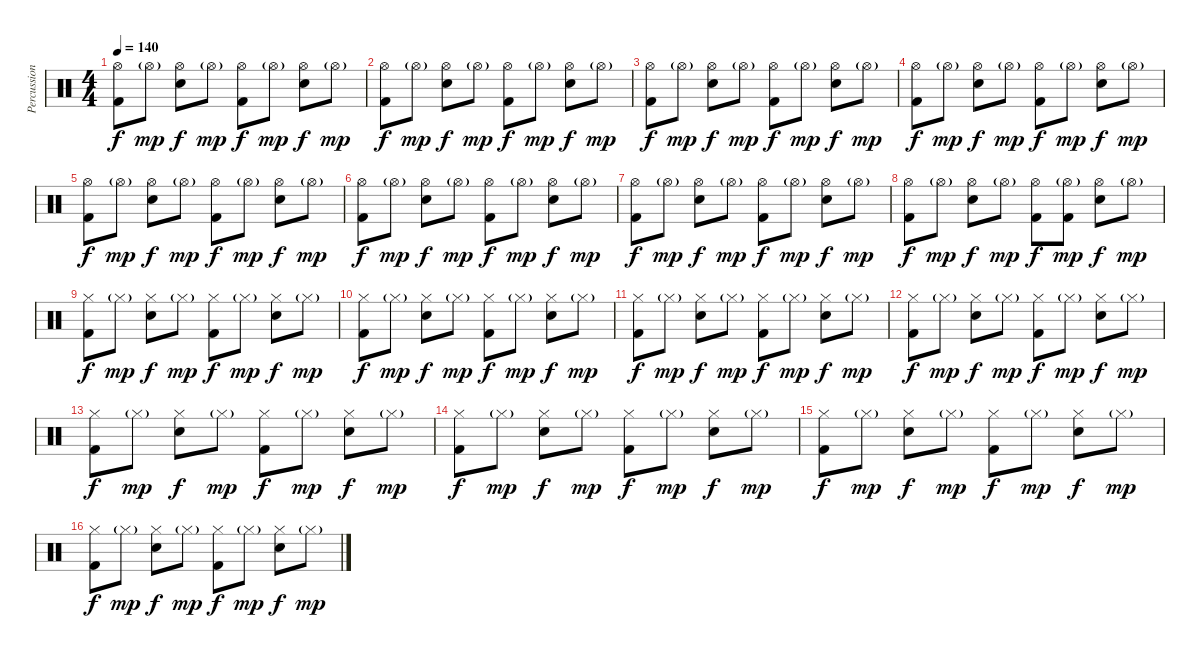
\track ("Percussion" "Percussion") {instrument percussion}
\staff {score}
\articulation defaults
\ts (4 4)
\tempo 140
\clef neutral
\ks c
("Hi-Hat (open)" "Kick (hit) 2").8{dy f} "Hi-Hat (open)"{g}.8{dy mp} ("Hi-Hat (open)" "Snare (hit) 2").8{dy f} "Hi-Hat (open)"{g}.8{dy mp} ("Hi-Hat (open)" "Kick (hit) 2").8{dy f} "Hi-Hat (open)"{g}.8{dy mp} ("Hi-Hat (open)" "Snare (hit) 2").8{dy f} "Hi-Hat (open)"{g}.8{dy mp} |
("Hi-Hat (open)" "Kick (hit) 2").8{dy f} "Hi-Hat (open)"{g}.8{dy mp} ("Hi-Hat (open)" "Snare (hit) 2").8{dy f} "Hi-Hat (open)"{g}.8{dy mp} ("Hi-Hat (open)" "Kick (hit) 2").8{dy f} "Hi-Hat (open)"{g}.8{dy mp} ("Hi-Hat (open)" "Snare (hit) 2").8{dy f} "Hi-Hat (open)"{g}.8{dy mp} |
("Hi-Hat (open)" "Kick (hit) 2").8{dy f} "Hi-Hat (open)"{g}.8{dy mp} ("Hi-Hat (open)" "Snare (hit) 2").8{dy f} "Hi-Hat (open)"{g}.8{dy mp} ("Hi-Hat (open)" "Kick (hit) 2").8{dy f} "Hi-Hat (open)"{g}.8{dy mp} ("Hi-Hat (open)" "Snare (hit) 2").8{dy f} "Hi-Hat (open)"{g}.8{dy mp} |
("Hi-Hat (open)" "Kick (hit) 2").8{dy f} "Hi-Hat (open)"{g}.8{dy mp} ("Hi-Hat (open)" "Snare (hit) 2").8{dy f} "Hi-Hat (open)"{g}.8{dy mp} ("Hi-Hat (open)" "Kick (hit) 2").8{dy f} "Hi-Hat (open)"{g}.8{dy mp} ("Hi-Hat (open)" "Snare (hit) 2").8{dy f} "Hi-Hat (open)"{g}.8{dy mp} |
("Hi-Hat (open)" "Kick (hit) 2").8{dy f} "Hi-Hat (open)"{g}.8{dy mp} ("Hi-Hat (open)" "Snare (hit) 2").8{dy f} "Hi-Hat (open)"{g}.8{dy mp} ("Hi-Hat (open)" "Kick (hit) 2").8{dy f} "Hi-Hat (open)"{g}.8{dy mp} ("Hi-Hat (open)" "Snare (hit) 2").8{dy f} "Hi-Hat (open)"{g}.8{dy mp} |
("Hi-Hat (open)" "Kick (hit) 2").8{dy f} "Hi-Hat (open)"{g}.8{dy mp} ("Hi-Hat (open)" "Snare (hit) 2").8{dy f} "Hi-Hat (open)"{g}.8{dy mp} ("Hi-Hat (open)" "Kick (hit) 2").8{dy f} "Hi-Hat (open)"{g}.8{dy mp} ("Hi-Hat (open)" "Snare (hit) 2").8{dy f} "Hi-Hat (open)"{g}.8{dy mp} |
("Hi-Hat (open)" "Kick (hit) 2").8{dy f} "Hi-Hat (open)"{g}.8{dy mp} ("Hi-Hat (open)" "Snare (hit) 2").8{dy f} "Hi-Hat (open)"{g}.8{dy mp} ("Hi-Hat (open)" "Kick (hit) 2").8{dy f} "Hi-Hat (open)"{g}.8{dy mp} ("Hi-Hat (open)" "Snare (hit) 2").8{dy f} "Hi-Hat (open)"{g}.8{dy mp} |
("Hi-Hat (open)" "Kick (hit) 2").8{dy f} "Hi-Hat (open)"{g}.8{dy mp} ("Hi-Hat (open)" "Snare (hit) 2").8{dy f} "Hi-Hat (open)"{g}.8{dy mp} ("Hi-Hat (open)" "Kick (hit) 2").8{dy f} ("Hi-Hat (open)"{g} "Kick (hit) 2").8{dy mp} ("Hi-Hat (open)" "Snare (hit) 2").8{dy f} "Hi-Hat (open)"{g}.8{dy mp} |
("Hi-Hat (closed)" "Kick (hit) 2").8{dy f} "Hi-Hat (closed)"{g}.8{dy mp} ("Hi-Hat (closed)" "Snare (hit) 2").8{dy f} "Hi-Hat (closed)"{g}.8{dy mp} ("Hi-Hat (closed)" "Kick (hit) 2").8{dy f} "Hi-Hat (closed)"{g}.8{dy mp} ("Hi-Hat (closed)" "Snare (hit) 2").8{dy f} "Hi-Hat (closed)"{g}.8{dy mp} |
("Hi-Hat (closed)" "Kick (hit) 2").8{dy f} "Hi-Hat (closed)"{g}.8{dy mp} ("Hi-Hat (closed)" "Snare (hit) 2").8{dy f} "Hi-Hat (closed)"{g}.8{dy mp} ("Hi-Hat (closed)" "Kick (hit) 2").8{dy f} "Hi-Hat (closed)"{g}.8{dy mp} ("Hi-Hat (closed)" "Snare (hit) 2").8{dy f} "Hi-Hat (closed)"{g}.8{dy mp} |
("Hi-Hat (closed)" "Kick (hit) 2").8{dy f} "Hi-Hat (closed)"{g}.8{dy mp} ("Hi-Hat (closed)" "Snare (hit) 2").8{dy f} "Hi-Hat (closed)"{g}.8{dy mp} ("Hi-Hat (closed)" "Kick (hit) 2").8{dy f} "Hi-Hat (closed)"{g}.8{dy mp} ("Hi-Hat (closed)" "Snare (hit) 2").8{dy f} "Hi-Hat (closed)"{g}.8{dy mp} |
("Hi-Hat (closed)" "Kick (hit) 2").8{dy f} "Hi-Hat (closed)"{g}.8{dy mp} ("Hi-Hat (closed)" "Snare (hit) 2").8{dy f} "Hi-Hat (closed)"{g}.8{dy mp} ("Hi-Hat (closed)" "Kick (hit) 2").8{dy f} "Hi-Hat (closed)"{g}.8{dy mp} ("Hi-Hat (closed)" "Snare (hit) 2").8{dy f} "Hi-Hat (closed)"{g}.8{dy mp} |
("Hi-Hat (closed)" "Kick (hit) 2").8{dy f} "Hi-Hat (closed)"{g}.8{dy mp} ("Hi-Hat (closed)" "Snare (hit) 2").8{dy f} "Hi-Hat (closed)"{g}.8{dy mp} ("Hi-Hat (closed)" "Kick (hit) 2").8{dy f} "Hi-Hat (closed)"{g}.8{dy mp} ("Hi-Hat (closed)" "Snare (hit) 2").8{dy f} "Hi-Hat (closed)"{g}.8{dy mp} |
("Hi-Hat (closed)" "Kick (hit) 2").8{dy f} "Hi-Hat (closed)"{g}.8{dy mp} ("Hi-Hat (closed)" "Snare (hit) 2").8{dy f} "Hi-Hat (closed)"{g}.8{dy mp} ("Hi-Hat (closed)" "Kick (hit) 2").8{dy f} "Hi-Hat (closed)"{g}.8{dy mp} ("Hi-Hat (closed)" "Snare (hit) 2").8{dy f} "Hi-Hat (closed)"{g}.8{dy mp} |
("Hi-Hat (closed)" "Kick (hit) 2").8{dy f} "Hi-Hat (closed)"{g}.8{dy mp} ("Hi-Hat (closed)" "Snare (hit) 2").8{dy f} "Hi-Hat (closed)"{g}.8{dy mp} ("Hi-Hat (closed)" "Kick (hit) 2").8{dy f} "Hi-Hat (closed)"{g}.8{dy mp} ("Hi-Hat (closed)" "Snare (hit) 2").8{dy f} "Hi-Hat (closed)"{g}.8{dy mp} |
("Hi-Hat (closed)" "Kick (hit) 2").8{dy f} "Hi-Hat (closed)"{g}.8{dy mp} ("Hi-Hat (closed)" "Snare (hit) 2").8{dy f} "Hi-Hat (closed)"{g}.8{dy mp} ("Hi-Hat (closed)" "Kick (hit) 2").8{dy f} "Hi-Hat (closed)"{g}.8{dy mp} ("Hi-Hat (closed)" "Snare (hit) 2").8{dy f} "Hi-Hat (closed)"{g}.8{dy mp}
